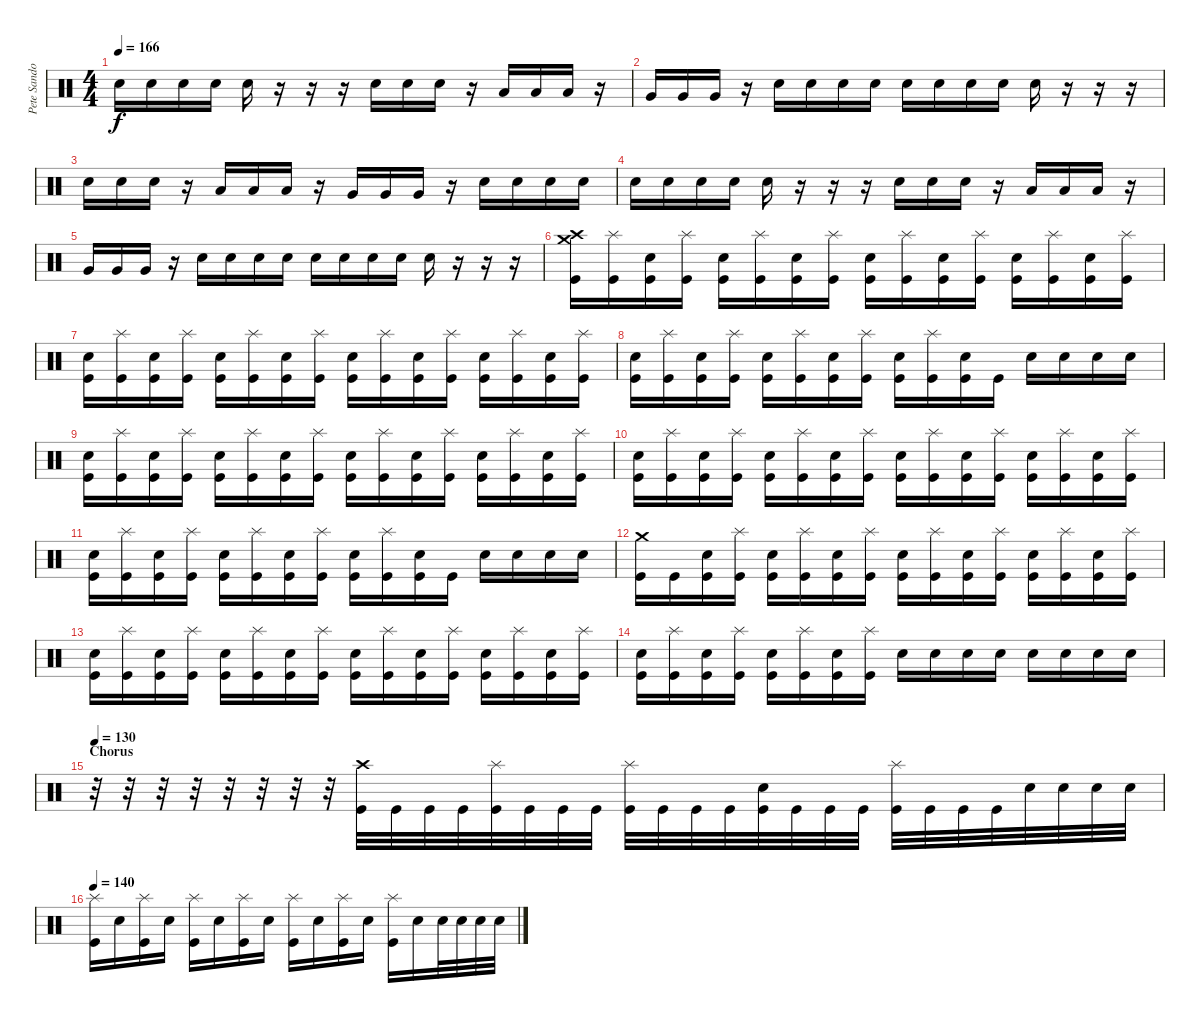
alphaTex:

\track ("Pete Sandoval" "Pete Sando") {instrument percussion}
\staff {score}
\articulation defaults
\ts (4 4)
\tempo 166
\clef neutral
\ks c "Electric Snare (hit)".16{dy f} "Electric Snare (hit)".16 "Electric Snare (hit)".16 "Electric Snare (hit)".16 "Electric Snare (hit)".16
r.16 r.16 r.16 "Electric Snare (hit)".16 "Electric Snare (hit)".16 "Electric Snare (hit)".16 r.16 "Low Tom (hit)".16 "Low Tom (hit)".16 "Low Tom (hit)".16 r.16 |
"Very Low Tom (hit)".16 "Very Low Tom (hit)".16 "Very Low Tom (hit)".16 r.16 "Electric Snare (hit)".16 "Electric Snare (hit)".16 "Electric Snare (hit)".16 "Electric Snare (hit)".16 "Electric Snare (hit)".16 "Electric Snare (hit)".16 "Electric Snare (hit)".16 "Electric Snare (hit)".16 "Electric Snare (hit)".16 r.16 r.16 r.16 |
"Electric Snare (hit)".16 "Electric Snare (hit)".16 "Electric Snare (hit)".16 r.16 "Low Tom (hit)".16 "Low Tom (hit)".16 "Low Tom (hit)".16 r.16 "Very Low Tom (hit)".16 "Very Low Tom (hit)".16 "Very Low Tom (hit)".16 r.16 "Electric Snare (hit)".16 "Electric Snare (hit)".16 "Electric Snare (hit)".16 "Electric Snare (hit)".16 |
"Electric Snare (hit)".16 "Electric Snare (hit)".16 "Electric Snare (hit)".16 "Electric Snare (hit)".16 "Electric Snare (hit)".16 r.16 r.16 r.16 "Electric Snare (hit)".16 "Electric Snare (hit)".16 "Electric Snare (hit)".16 r.16 "Low Tom (hit)".16 "Low Tom (hit)".16 "Low Tom (hit)".16 r.16 |
"Very Low Tom (hit)".16 "Very Low Tom (hit)".16 "Very Low Tom (hit)".16 r.16 "Electric Snare (hit)".16 "Electric Snare (hit)".16 "Electric Snare (hit)".16 "Electric Snare (hit)".16 "Electric Snare (hit)".16 "Electric Snare (hit)".16 "Electric Snare (hit)".16 "Electric Snare (hit)".16 "Electric Snare (hit)".16 r.16 r.16 r.16 |
("Crash high (hit)" "Crash medium (hit)" "Kick (hit)").16 ("Splash (hit)" "Kick (hit)").16 ("Electric Snare (hit)" "Kick (hit)").16 ("Splash (hit)" "Kick (hit)").16 ("Electric Snare (hit)" "Kick (hit)").16 ("Splash (hit)" "Kick (hit)").16 ("Electric Snare (hit)" "Kick (hit)").16 ("Splash (hit)" "Kick (hit)").16 ("Electric Snare (hit)" "Kick (hit)").16 ("Splash (hit)" "Kick (hit)").16 ("Electric Snare (hit)" "Kick (hit)").16 ("Splash (hit)" "Kick (hit)").16 ("Electric Snare (hit)" "Kick (hit)").16 ("Splash (hit)" "Kick (hit)").16 ("Electric Snare (hit)" "Kick (hit)").16 ("Splash (hit)" "Kick (hit)").16 |
("Electric Snare (hit)" "Kick (hit)").16 ("Splash (hit)" "Kick (hit)").16 ("Electric Snare (hit)" "Kick (hit)").16 ("Splash (hit)" "Kick (hit)").16 ("Electric Snare (hit)" "Kick (hit)").16 ("Splash (hit)" "Kick (hit)").16 ("Electric Snare (hit)" "Kick (hit)").16 ("Splash (hit)" "Kick (hit)").16 ("Electric Snare (hit)" "Kick (hit)").16 ("Splash (hit)" "Kick (hit)").16 ("Electric Snare (hit)" "Kick (hit)").16 ("Splash (hit)" "Kick (hit)").16 ("Electric Snare (hit)" "Kick (hit)").16 ("Splash (hit)" "Kick (hit)").16 ("Electric Snare (hit)" "Kick (hit)").16 ("Splash (hit)" "Kick (hit)").16 |
("Electric Snare (hit)" "Kick (hit)").16 ("Splash (hit)" "Kick (hit)").16 ("Electric Snare (hit)" "Kick (hit)").16 ("Splash (hit)" "Kick (hit)").16 ("Electric Snare (hit)" "Kick (hit)").16 ("Splash (hit)" "Kick (hit)").16 ("Electric Snare (hit)" "Kick (hit)").16 ("Splash (hit)" "Kick (hit)").16 ("Electric Snare (hit)" "Kick (hit)").16 ("Splash (hit)" "Kick (hit)").16 ("Electric Snare (hit)" "Kick (hit)").16 "Kick (hit)".16 "Electric Snare (hit)".16 "Electric Snare (hit)".16 "Electric Snare (hit)".16 "Electric Snare (hit)".16 |
("Electric Snare (hit)" "Kick (hit)").16 ("Splash (hit)" "Kick (hit)").16 ("Electric Snare (hit)" "Kick (hit)").16 ("Splash (hit)" "Kick (hit)").16 ("Electric Snare (hit)" "Kick (hit)").16 ("Splash (hit)" "Kick (hit)").16 ("Electric Snare (hit)" "Kick (hit)").16 ("Splash (hit)" "Kick (hit)").16 ("Electric Snare (hit)" "Kick (hit)").16 ("Splash (hit)" "Kick (hit)").16 ("Electric Snare (hit)" "Kick (hit)").16 ("Splash (hit)" "Kick (hit)").16 ("Electric Snare (hit)" "Kick (hit)").16 ("Splash (hit)" "Kick (hit)").16 ("Electric Snare (hit)" "Kick (hit)").16 ("Splash (hit)" "Kick (hit)").16 |
("Electric Snare (hit)" "Kick (hit)").16 ("Splash (hit)" "Kick (hit)").16 ("Electric Snare (hit)" "Kick (hit)").16 ("Splash (hit)" "Kick (hit)").16 ("Electric Snare (hit)" "Kick (hit)").16 ("Splash (hit)" "Kick (hit)").16 ("Electric Snare (hit)" "Kick (hit)").16 ("Splash (hit)" "Kick (hit)").16 ("Electric Snare (hit)" "Kick (hit)").16 ("Splash (hit)" "Kick (hit)").16 ("Electric Snare (hit)" "Kick (hit)").16 ("Splash (hit)" "Kick (hit)").16 ("Electric Snare (hit)" "Kick (hit)").16 ("Splash (hit)" "Kick (hit)").16 ("Electric Snare (hit)" "Kick (hit)").16 ("Splash (hit)" "Kick (hit)").16 |
("Electric Snare (hit)" "Kick (hit)").16 ("Splash (hit)" "Kick (hit)").16 ("Electric Snare (hit)" "Kick (hit)").16 ("Splash (hit)" "Kick (hit)").16 ("Electric Snare (hit)" "Kick (hit)").16 ("Splash (hit)" "Kick (hit)").16 ("Electric Snare (hit)" "Kick (hit)").16 ("Splash (hit)" "Kick (hit)").16 ("Electric Snare (hit)" "Kick (hit)").16 ("Splash (hit)" "Kick (hit)").16 ("Electric Snare (hit)" "Kick (hit)").16 "Kick (hit)".16 "Electric Snare (hit)".16 "Electric Snare (hit)".16 "Electric Snare (hit)".16 "Electric Snare (hit)".16 |
("Crash medium (hit)" "Kick (hit)").16 "Kick (hit)".16 ("Electric Snare (hit)" "Kick (hit)").16 ("Splash (hit)" "Kick (hit)").16 ("Electric Snare (hit)" "Kick (hit)").16 ("Splash (hit)" "Kick (hit)").16 ("Electric Snare (hit)" "Kick (hit)").16 ("Splash (hit)" "Kick (hit)").16 ("Electric Snare (hit)" "Kick (hit)").16 ("Splash (hit)" "Kick (hit)").16 ("Electric Snare (hit)" "Kick (hit)").16 ("Splash (hit)" "Kick (hit)").16 ("Electric Snare (hit)" "Kick (hit)").16 ("Splash (hit)" "Kick (hit)").16 ("Electric Snare (hit)" "Kick (hit)").16 ("Splash (hit)" "Kick (hit)").16 |
("Electric Snare (hit)" "Kick (hit)").16 ("Splash (hit)" "Kick (hit)").16 ("Electric Snare (hit)" "Kick (hit)").16 ("Splash (hit)" "Kick (hit)").16 ("Electric Snare (hit)" "Kick (hit)").16 ("Splash (hit)" "Kick (hit)").16 ("Electric Snare (hit)" "Kick (hit)").16 ("Splash (hit)" "Kick (hit)").16 ("Electric Snare (hit)" "Kick (hit)").16 ("Splash (hit)" "Kick (hit)").16 ("Electric Snare (hit)" "Kick (hit)").16 ("Splash (hit)" "Kick (hit)").16 ("Electric Snare (hit)" "Kick (hit)").16 ("Splash (hit)" "Kick (hit)").16 ("Electric Snare (hit)" "Kick (hit)").16 ("Splash (hit)" "Kick (hit)").16 |
("Electric Snare (hit)" "Kick (hit)").16 ("Splash (hit)" "Kick (hit)").16 ("Electric Snare (hit)" "Kick (hit)").16 ("Splash (hit)" "Kick (hit)").16 ("Electric Snare (hit)" "Kick (hit)").16 ("Splash (hit)" "Kick (hit)").16 ("Electric Snare (hit)" "Kick (hit)").16 ("Splash (hit)" "Kick (hit)").16 "Electric Snare (hit)".16 "Electric Snare (hit)".16 "Electric Snare (hit)".16 "Electric Snare (hit)".16 "Electric Snare (hit)".16 "Electric Snare (hit)".16 "Electric Snare (hit)".16 "Electric Snare (hit)".16 |
\section ("" "Chorus")
\tempo 130
r.32 r.32 r.32 r.32 r.32 r.32 r.32 r.32 ("Crash high (hit)" "Kick (hit)").32 "Kick (hit)".32 "Kick (hit)".32 "Kick (hit)".32 ("Splash (hit)" "Kick (hit)").32 "Kick (hit)".32 "Kick (hit)".32 "Kick (hit)".32 ("Splash (hit)" "Kick (hit)").32 "Kick (hit)".32 "Kick (hit)".32 "Kick (hit)".32 ("Electric Snare (hit)" "Kick (hit)").32 "Kick (hit)".32 "Kick (hit)".32 "Kick (hit)".32 ("Splash (hit)" "Kick (hit)").32 "Kick (hit)".32 "Kick (hit)".32 "Kick (hit)".32 "Electric Snare (hit)".32 "Electric Snare (hit)".32 "Electric Snare (hit)".32 "Electric Snare (hit)".32 |
\tempo 140
("Splash (hit)" "Kick (hit)").16 "Electric Snare (hit)".16 ("Splash (hit)" "Kick (hit)").16 "Electric Snare (hit)".16 ("Splash (hit)" "Kick (hit)").16 "Electric Snare (hit)".16 ("Splash (hit)" "Kick (hit)").16 "Electric Snare (hit)".16 ("Splash (hit)" "Kick (hit)").16 "Electric Snare (hit)".16 ("Splash (hit)" "Kick (hit)").16 "Electric Snare (hit)".16 ("Splash (hit)" "Kick (hit)").16 "Electric Snare (hit)".16 "Electric Snare (hit)".32 "Electric Snare (hit)".32 "Electric Snare (hit)".32 "Electric Snare (hit)".32
